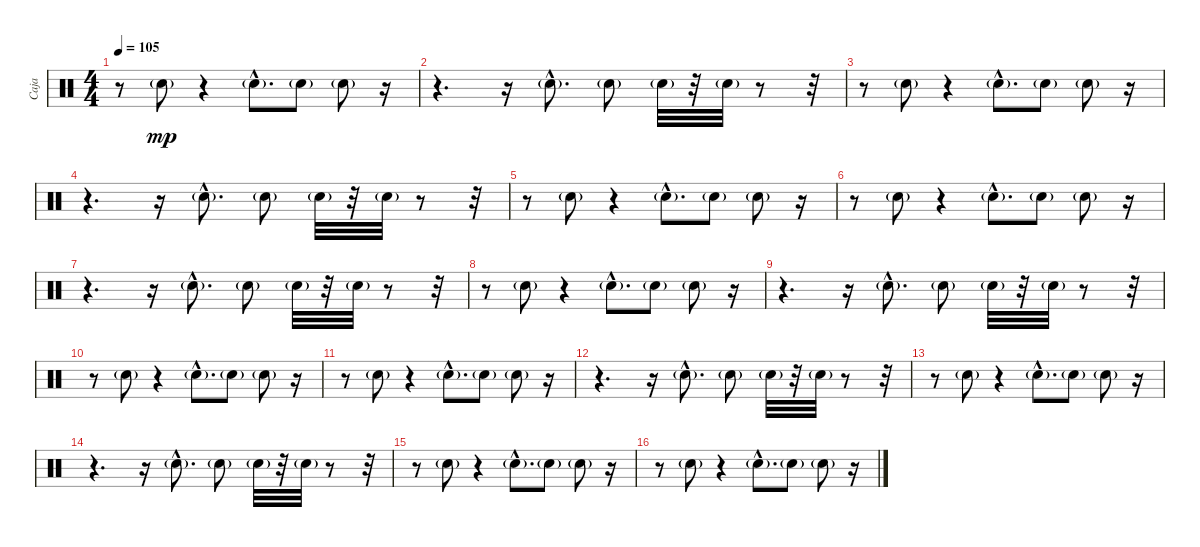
\track ("Caja" "Caja") {instrument percussion}
\staff {score}
\articulation defaults
\ts (4 4)
\tempo 105
\clef neutral
\ks c
r.8{dy mp} "Electric Snare (hit)"{g}.8 r.4 "Electric Snare (hit)"{g hac}.8{d} "Electric Snare (hit)"{g}.8 "Electric Snare (hit)"{g}.8 r.16 |
r.4{d} r.16 "Electric Snare (hit)"{g hac}.8{d} "Electric Snare (hit)"{g}.8 "Electric Snare (hit)"{g}.32 r.32 "Electric Snare (hit)"{g}.32 r.8 r.32 |
r.8 "Electric Snare (hit)"{g}.8 r.4 "Electric Snare (hit)"{g hac}.8{d} "Electric Snare (hit)"{g}.8 "Electric Snare (hit)"{g}.8 r.16 |
r.4{d} r.16 "Electric Snare (hit)"{g hac}.8{d} "Electric Snare (hit)"{g}.8 "Electric Snare (hit)"{g}.32 r.32 "Electric Snare (hit)"{g}.32 r.8 r.32 |
r.8 "Electric Snare (hit)"{g}.8 r.4 "Electric Snare (hit)"{g hac}.8{d} "Electric Snare (hit)"{g}.8 "Electric Snare (hit)"{g}.8 r.16 |
r.8 "Electric Snare (hit)"{g}.8 r.4 "Electric Snare (hit)"{g hac}.8{d} "Electric Snare (hit)"{g}.8 "Electric Snare (hit)"{g}.8 r.16 |
r.4{d} r.16 "Electric Snare (hit)"{g hac}.8{d} "Electric Snare (hit)"{g}.8 "Electric Snare (hit)"{g}.32 r.32 "Electric Snare (hit)"{g}.32 r.8 r.32 |
r.8 "Electric Snare (hit)"{g}.8 r.4 "Electric Snare (hit)"{g hac}.8{d} "Electric Snare (hit)"{g}.8 "Electric Snare (hit)"{g}.8 r.16 |
r.4{d} r.16 "Electric Snare (hit)"{g hac}.8{d} "Electric Snare (hit)"{g}.8 "Electric Snare (hit)"{g}.32 r.32 "Electric Snare (hit)"{g}.32 r.8 r.32 |
r.8 "Electric Snare (hit)"{g}.8 r.4 "Electric Snare (hit)"{g hac}.8{d} "Electric Snare (hit)"{g}.8 "Electric Snare (hit)"{g}.8 r.16 |
r.8 "Electric Snare (hit)"{g}.8 r.4 "Electric Snare (hit)"{g hac}.8{d} "Electric Snare (hit)"{g}.8 "Electric Snare (hit)"{g}.8 r.16 |
r.4{d} r.16 "Electric Snare (hit)"{g hac}.8{d} "Electric Snare (hit)"{g}.8 "Electric Snare (hit)"{g}.32 r.32 "Electric Snare (hit)"{g}.32 r.8 r.32 |
r.8 "Electric Snare (hit)"{g}.8 r.4 "Electric Snare (hit)"{g hac}.8{d} "Electric Snare (hit)"{g}.8 "Electric Snare (hit)"{g}.8 r.16 |
r.4{d} r.16 "Electric Snare (hit)"{g hac}.8{d} "Electric Snare (hit)"{g}.8 "Electric Snare (hit)"{g}.32 r.32 "Electric Snare (hit)"{g}.32 r.8 r.32 |
r.8 "Electric Snare (hit)"{g}.8 r.4 "Electric Snare (hit)"{g hac}.8{d} "Electric Snare (hit)"{g}.8 "Electric Snare (hit)"{g}.8 r.16 |
r.8 "Electric Snare (hit)"{g}.8 r.4 "Electric Snare (hit)"{g hac}.8{d} "Electric Snare (hit)"{g}.8 "Electric Snare (hit)"{g}.8 r.16
